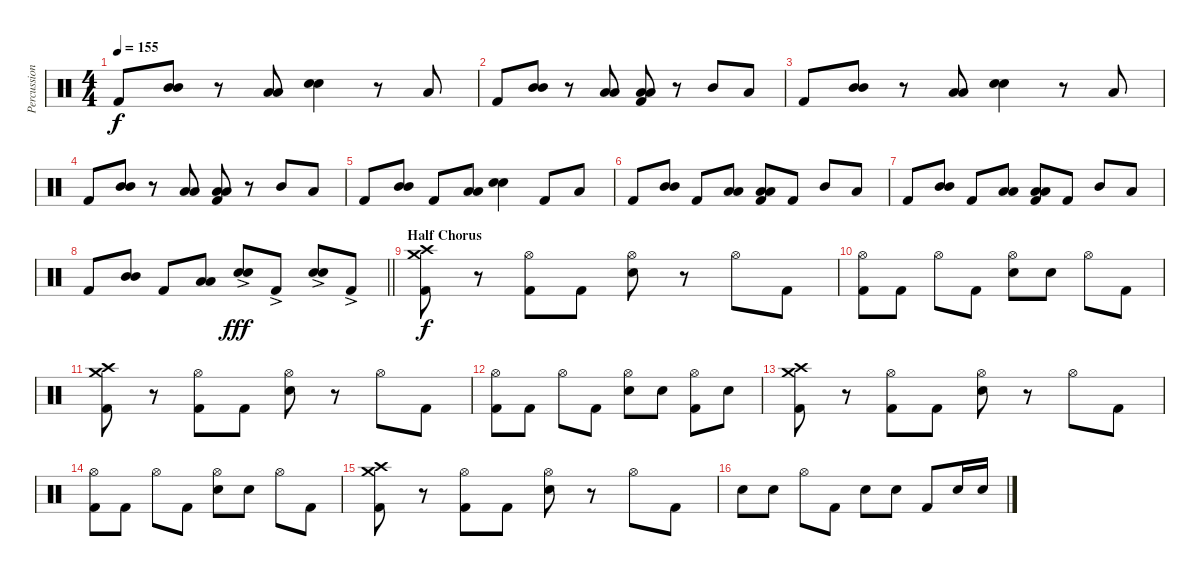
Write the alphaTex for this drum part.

\track ("Percussion" "Percussion") {instrument percussion}
\staff {score}
\articulation defaults
\ts (4 4)
\tempo 155
\clef neutral
\ks c "Kick (hit) 2".8{dy f}
("Mid Tom (hit)" "Mid Tom (hit)").8 r.8 ("Low Tom (hit)" "Low Tom (hit)").8 ("Electric Snare (hit)" "Electric Snare (hit)").4{bu 240} r.8 "Low Tom (hit)".8 |
"Kick (hit) 2".8 ("Mid Tom (hit)" "Mid Tom (hit)").8 r.8 ("Low Tom (hit)" "Low Tom (hit)").8 ("Low Floor Tom (hit)" "Low Floor Tom (hit)" "Kick (hit) 2").8 r.8 "Mid Tom (hit)".8 "Low Tom (hit)".8 |
"Kick (hit) 2".8 ("Mid Tom (hit)" "Mid Tom (hit)").8 r.8 ("Low Tom (hit)" "Low Tom (hit)").8 ("Electric Snare (hit)" "Electric Snare (hit)").4{bu 240} r.8 "Low Tom (hit)".8 |
"Kick (hit) 2".8 ("Mid Tom (hit)" "Mid Tom (hit)").8 r.8 ("Low Tom (hit)" "Low Tom (hit)").8 ("Low Floor Tom (hit)" "Low Floor Tom (hit)" "Kick (hit) 2").8 r.8 "Mid Tom (hit)".8 "Low Tom (hit)".8 |
"Kick (hit) 2".8 ("Mid Tom (hit)" "Mid Tom (hit)").8 "Kick (hit) 2".8 ("Low Tom (hit)" "Low Tom (hit)").8 ("Electric Snare (hit)" "Electric Snare (hit)").4{bu 240} "Kick (hit) 2".8 "Low Tom (hit)".8 |
"Kick (hit) 2".8 ("Mid Tom (hit)" "Mid Tom (hit)").8 "Kick (hit) 2".8 ("Low Tom (hit)" "Low Tom (hit)").8 ("Low Floor Tom (hit)" "Low Floor Tom (hit)" "Kick (hit) 2").8 "Kick (hit) 2".8 "Mid Tom (hit)".8 "Low Tom (hit)".8 |
"Kick (hit) 2".8 ("Mid Tom (hit)" "Mid Tom (hit)").8 "Kick (hit) 2".8 ("Low Tom (hit)" "Low Tom (hit)").8 ("Low Floor Tom (hit)" "Low Floor Tom (hit)" "Kick (hit) 2").8 "Kick (hit) 2".8 "Mid Tom (hit)".8 "Low Tom (hit)".8 |
\barLineRight lightlight "Kick (hit) 2".8
("Mid Tom (hit)" "Mid Tom (hit)").8 "Kick (hit) 2".8 ("Low Tom (hit)" "Low Tom (hit)").8 ("Electric Snare (hit)"{ac} "Electric Snare (hit)"{ac}).8{bu 240 dy fff} "Kick (hit) 2"{ac}.8 ("Electric Snare (hit)"{ac} "Electric Snare (hit)"{ac}).8{bu 240} "Kick (hit) 2"{ac}.8 |
\section ("" "Half Chorus")
("Crash high (hit)" "Crash medium (hit)" "Kick (hit) 2").8{dy f} r.8 ("Hi-Hat (open)" "Kick (hit) 2").8 "Kick (hit) 2".8 ("Hi-Hat (open)" "Electric Snare (hit)").8 r.8 "Hi-Hat (open)".8 "Kick (hit) 2".8 |
("Hi-Hat (open)" "Kick (hit) 2").8 "Kick (hit) 2".8 "Hi-Hat (open)".8 "Kick (hit) 2".8 ("Hi-Hat (open)" "Electric Snare (hit)").8 "Electric Snare (hit)".8 "Hi-Hat (open)".8 "Kick (hit) 2".8 |
("Crash high (hit)" "Crash medium (hit)" "Kick (hit) 2").8 r.8 ("Hi-Hat (open)" "Kick (hit) 2").8 "Kick (hit) 2".8 ("Hi-Hat (open)" "Electric Snare (hit)").8 r.8 "Hi-Hat (open)".8 "Kick (hit) 2".8 |
("Hi-Hat (open)" "Kick (hit) 2").8 "Kick (hit) 2".8 "Hi-Hat (open)".8 "Kick (hit) 2".8 ("Hi-Hat (open)" "Electric Snare (hit)").8 "Electric Snare (hit)".8 ("Hi-Hat (open)" "Kick (hit) 2").8 "Electric Snare (hit)".8 |
("Crash high (hit)" "Crash medium (hit)" "Kick (hit) 2").8 r.8 ("Hi-Hat (open)" "Kick (hit) 2").8 "Kick (hit) 2".8 ("Hi-Hat (open)" "Electric Snare (hit)").8 r.8 "Hi-Hat (open)".8 "Kick (hit) 2".8 |
("Hi-Hat (open)" "Kick (hit) 2").8 "Kick (hit) 2".8 "Hi-Hat (open)".8 "Kick (hit) 2".8 ("Hi-Hat (open)" "Electric Snare (hit)").8 "Electric Snare (hit)".8 "Hi-Hat (open)".8 "Kick (hit) 2".8 |
("Crash high (hit)" "Crash medium (hit)" "Kick (hit) 2").8 r.8 ("Hi-Hat (open)" "Kick (hit) 2").8 "Kick (hit) 2".8 ("Hi-Hat (open)" "Electric Snare (hit)").8 r.8 "Hi-Hat (open)".8 "Kick (hit) 2".8 |
"Electric Snare (hit)".8 "Electric Snare (hit)".8 "Hi-Hat (open)".8 "Kick (hit) 2".8 "Electric Snare (hit)".8 "Electric Snare (hit)".8 "Kick (hit) 2".8 "Electric Snare (hit)".16 "Electric Snare (hit)".16
